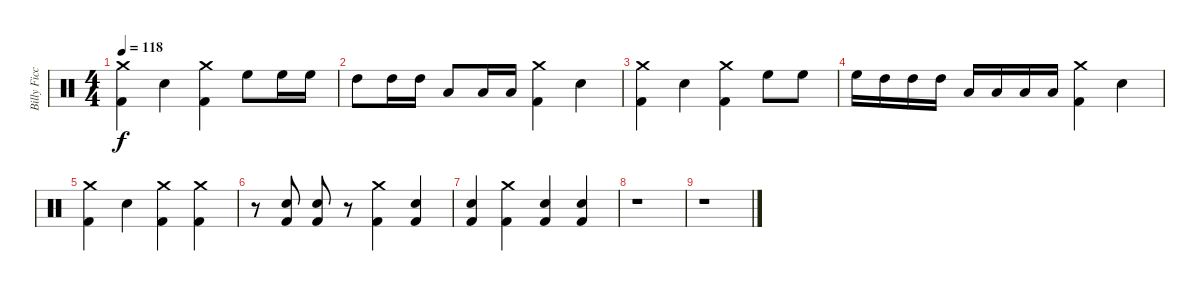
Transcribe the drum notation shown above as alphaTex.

\track ("Billy Ficca" "Billy Ficc") {instrument percussion}
\staff {score}
\articulation defaults
\ts (4 4)
\tempo 118
\clef neutral
\ks c
("Crash medium (hit)" "Kick (hit) 2").4{dy f} "Electric Snare (hit)".4 ("Crash medium (hit)" "Kick (hit) 2").4 "High Floor Tom (hit)".8 "High Floor Tom (hit)".16 "High Floor Tom (hit)".16 |
"High Tom (hit)".8 "High Tom (hit)".16 "High Tom (hit)".16 "Low Tom (hit)".8 "Low Tom (hit)".16 "Low Tom (hit)".16 ("Crash medium (hit)" "Kick (hit) 2").4 "Electric Snare (hit)".4 |
("Crash medium (hit)" "Kick (hit) 2").4 "Electric Snare (hit)".4 ("Crash medium (hit)" "Kick (hit) 2").4 "High Floor Tom (hit)".8 "High Floor Tom (hit)".8 |
"High Floor Tom (hit)".16 "High Tom (hit)".16 "High Tom (hit)".16 "High Tom (hit)".16 "Low Tom (hit)".16 "Low Tom (hit)".16 "Low Tom (hit)".16 "Low Tom (hit)".16 ("Crash medium (hit)" "Kick (hit) 2").4 "Electric Snare (hit)".4 |
("Crash medium (hit)" "Kick (hit) 2").4 "Electric Snare (hit)".4 ("Crash medium (hit)" "Kick (hit) 2").4 ("Crash medium (hit)" "Kick (hit) 2").4 |
r.8 ("Electric Snare (hit)" "Kick (hit) 2").8 ("Electric Snare (hit)" "Kick (hit) 2").8 r.8 ("Crash medium (hit)" "Kick (hit) 2").4 ("Electric Snare (hit)" "Kick (hit) 2").4 |
("Electric Snare (hit)" "Kick (hit) 2").4 ("Crash medium (hit)" "Kick (hit) 2").4 ("Electric Snare (hit)" "Kick (hit) 2").4 ("Electric Snare (hit)" "Kick (hit) 2").4 |
r.1 |
r.1
